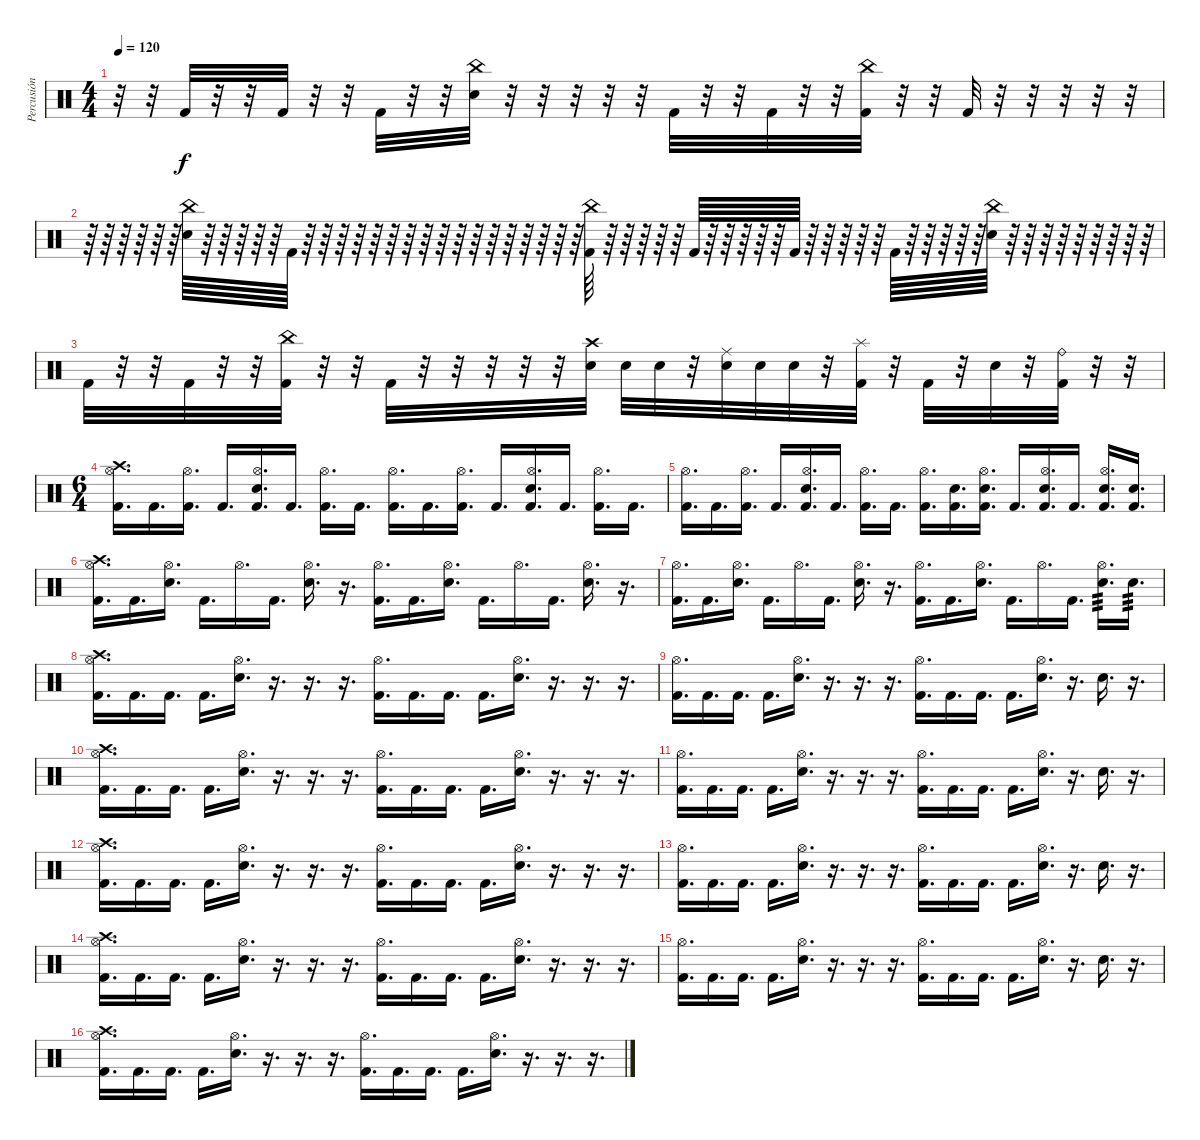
\track ("Percusión" "Percusión") {instrument percussion}
\staff {score}
\articulation defaults
\ts (4 4)
\tempo 120
\clef neutral
\ks c
r.32{dy f} r.32 "Kick (hit) 2".32 r.32 r.32 "Kick (hit) 2".32 r.32 r.32 "Kick (hit) 2".32 r.32 r.32 ("Electric Snare (hit)" "China (hit)").32 r.32 r.32 r.32 r.32 r.32 "Kick (hit) 2".32 r.32 r.32 "Kick (hit) 2".32 r.32 r.32 ("Kick (hit) 2" "China (hit)").32 r.32 r.32 "Kick (hit) 2".32 r.32 r.32 r.32 r.32 r.32 |
r.64 r.64 r.64 r.64 r.64 r.64 ("China (hit)" "Electric Snare (hit)").64 r.64 r.64 r.64 r.64 r.64 "Kick (hit) 2".64 r.64 r.64 r.64 r.64 r.64 r.64 r.64 r.64 r.64 r.64 r.64 r.64 r.64 r.64 r.64 r.64 r.64 ("China (hit)" "Kick (hit) 2").64 r.64 r.64 r.64 r.64 r.64 "Kick (hit) 2".64 r.64 r.64 r.64 r.64 r.64 "Kick (hit) 2".64 r.64 r.64 r.64 r.64 r.64 "Kick (hit) 2".64 r.64 r.64 r.64 r.64 r.64 ("China (hit)" "Electric Snare (hit)").64 r.64 r.64 r.64 r.64 r.64 r.64 r.64 r.64 r.64 |
"Kick (hit) 2".32 r.32 r.32 "Kick (hit) 2".32 r.32 r.32 ("China (hit)" "Kick (hit) 2").32 r.32 r.32 "Kick (hit) 2".32 r.32 r.32 r.32 r.32 r.32 ("Crash high (hit)" "Electric Snare (hit)").32 "Electric Snare (hit)".32 "Electric Snare (hit)".32 r.32 ("Ride (middle)" "Electric Snare (hit)").32 "Electric Snare (hit)".32 "Electric Snare (hit)".32 r.32 ("Splash (hit)" "Kick (hit) 2").32 r.32 "Kick (hit) 2".32 r.32 "Electric Snare (hit)".32 r.32 ("Ride (bell)" "Kick (hit) 2").32 r.32 r.32 |
\ts (6 4)
("Hi-Hat (open)" "Crash high (hit)" "Kick (hit) 2").16{d} "Kick (hit) 2".16{d} ("Hi-Hat (open)" "Kick (hit) 2").16{d} "Kick (hit) 2".16{d} ("Hi-Hat (open)" "Snare (hit) 2" "Kick (hit) 2").16{d} "Kick (hit) 2".16{d} ("Hi-Hat (open)" "Kick (hit) 2").16{d} "Kick (hit) 2".16{d} ("Hi-Hat (open)" "Kick (hit) 2").16{d} "Kick (hit) 2".16{d} ("Hi-Hat (open)" "Kick (hit) 2").16{d} "Kick (hit) 2".16{d} ("Hi-Hat (open)" "Snare (hit) 2" "Kick (hit) 2").16{d} "Kick (hit) 2".16{d} ("Hi-Hat (open)" "Kick (hit) 2").16{d} "Kick (hit) 2".16{d} |
("Hi-Hat (open)" "Kick (hit) 2").16{d} "Kick (hit) 2".16{d} ("Hi-Hat (open)" "Kick (hit) 2").16{d} "Kick (hit) 2".16{d} ("Hi-Hat (open)" "Snare (hit) 2" "Kick (hit) 2").16{d} "Kick (hit) 2".16{d} ("Hi-Hat (open)" "Kick (hit) 2").16{d} "Kick (hit) 2".16{d} ("Hi-Hat (open)" "Kick (hit) 2").16{d} ("Snare (hit) 2" "Kick (hit) 2").16{d} ("Hi-Hat (open)" "Snare (hit) 2" "Kick (hit) 2").16{d} "Kick (hit) 2".16{d} ("Hi-Hat (open)" "Snare (hit) 2" "Kick (hit) 2").16{d} "Kick (hit) 2".16{d} ("Hi-Hat (open)" "Snare (hit) 2" "Kick (hit) 2").16{d} ("Snare (hit) 2" "Kick (hit) 2").16{d} |
("Hi-Hat (open)" "Kick (hit) 2" "Crash high (hit)").16{d} "Kick (hit) 2".16{d} ("Hi-Hat (open)" "Snare (hit) 2").16{d} "Kick (hit) 2".16{d} "Hi-Hat (open)".16{d} "Kick (hit) 2".16{d} ("Hi-Hat (open)" "Snare (hit) 2").16{d} r.16{d} ("Hi-Hat (open)" "Kick (hit) 2").16{d} "Kick (hit) 2".16{d} ("Hi-Hat (open)" "Snare (hit) 2").16{d} "Kick (hit) 2".16{d} "Hi-Hat (open)".16{d} "Kick (hit) 2".16{d} ("Hi-Hat (open)" "Snare (hit) 2").16{d} r.16{d} |
("Hi-Hat (open)" "Kick (hit) 2").16{d} "Kick (hit) 2".16{d} ("Hi-Hat (open)" "Snare (hit) 2").16{d} "Kick (hit) 2".16{d} "Hi-Hat (open)".16{d} "Kick (hit) 2".16{d} ("Hi-Hat (open)" "Snare (hit) 2").16{d} r.16{d} ("Hi-Hat (open)" "Kick (hit) 2").16{d} "Kick (hit) 2".16{d} ("Hi-Hat (open)" "Snare (hit) 2").16{d} "Kick (hit) 2".16{d} "Hi-Hat (open)".16{d} "Kick (hit) 2".16{d} ("Hi-Hat (open)" "Snare (hit) 2").16{d tp 3} "Snare (hit) 2".16{d tp 3} |
("Hi-Hat (open)" "Kick (hit) 2" "Crash high (hit)").16{d} "Kick (hit) 2".16{d} "Kick (hit) 2".16{d} "Kick (hit) 2".16{d} ("Hi-Hat (open)" "Snare (hit) 2").16{d} r.16{d} r.16{d} r.16{d} ("Hi-Hat (open)" "Kick (hit) 2").16{d} "Kick (hit) 2".16{d} "Kick (hit) 2".16{d} "Kick (hit) 2".16{d} ("Hi-Hat (open)" "Snare (hit) 2").16{d} r.16{d} r.16{d} r.16{d} |
("Hi-Hat (open)" "Kick (hit) 2").16{d} "Kick (hit) 2".16{d} "Kick (hit) 2".16{d} "Kick (hit) 2".16{d} ("Hi-Hat (open)" "Snare (hit) 2").16{d} r.16{d} r.16{d} r.16{d} ("Hi-Hat (open)" "Kick (hit) 2").16{d} "Kick (hit) 2".16{d} "Kick (hit) 2".16{d} "Kick (hit) 2".16{d} ("Hi-Hat (open)" "Snare (hit) 2").16{d} r.16{d} "Snare (hit) 2".16{d} r.16{d} |
("Hi-Hat (open)" "Kick (hit) 2" "Crash high (hit)").16{d} "Kick (hit) 2".16{d} "Kick (hit) 2".16{d} "Kick (hit) 2".16{d} ("Hi-Hat (open)" "Snare (hit) 2").16{d} r.16{d} r.16{d} r.16{d} ("Hi-Hat (open)" "Kick (hit) 2").16{d} "Kick (hit) 2".16{d} "Kick (hit) 2".16{d} "Kick (hit) 2".16{d} ("Hi-Hat (open)" "Snare (hit) 2").16{d} r.16{d} r.16{d} r.16{d} |
("Hi-Hat (open)" "Kick (hit) 2").16{d} "Kick (hit) 2".16{d} "Kick (hit) 2".16{d} "Kick (hit) 2".16{d} ("Hi-Hat (open)" "Snare (hit) 2").16{d} r.16{d} r.16{d} r.16{d} ("Hi-Hat (open)" "Kick (hit) 2").16{d} "Kick (hit) 2".16{d} "Kick (hit) 2".16{d} "Kick (hit) 2".16{d} ("Hi-Hat (open)" "Snare (hit) 2").16{d} r.16{d} "Snare (hit) 2".16{d} r.16{d} |
("Hi-Hat (open)" "Kick (hit) 2" "Crash high (hit)").16{d} "Kick (hit) 2".16{d} "Kick (hit) 2".16{d} "Kick (hit) 2".16{d} ("Hi-Hat (open)" "Snare (hit) 2").16{d} r.16{d} r.16{d} r.16{d} ("Hi-Hat (open)" "Kick (hit) 2").16{d} "Kick (hit) 2".16{d} "Kick (hit) 2".16{d} "Kick (hit) 2".16{d} ("Hi-Hat (open)" "Snare (hit) 2").16{d} r.16{d} r.16{d} r.16{d} |
("Hi-Hat (open)" "Kick (hit) 2").16{d} "Kick (hit) 2".16{d} "Kick (hit) 2".16{d} "Kick (hit) 2".16{d} ("Hi-Hat (open)" "Snare (hit) 2").16{d} r.16{d} r.16{d} r.16{d} ("Hi-Hat (open)" "Kick (hit) 2").16{d} "Kick (hit) 2".16{d} "Kick (hit) 2".16{d} "Kick (hit) 2".16{d} ("Hi-Hat (open)" "Snare (hit) 2").16{d} r.16{d} "Snare (hit) 2".16{d} r.16{d} |
("Hi-Hat (open)" "Kick (hit) 2" "Crash high (hit)").16{d} "Kick (hit) 2".16{d} "Kick (hit) 2".16{d} "Kick (hit) 2".16{d} ("Hi-Hat (open)" "Snare (hit) 2").16{d} r.16{d} r.16{d} r.16{d} ("Hi-Hat (open)" "Kick (hit) 2").16{d} "Kick (hit) 2".16{d} "Kick (hit) 2".16{d} "Kick (hit) 2".16{d} ("Hi-Hat (open)" "Snare (hit) 2").16{d} r.16{d} r.16{d} r.16{d} |
("Hi-Hat (open)" "Kick (hit) 2").16{d} "Kick (hit) 2".16{d} "Kick (hit) 2".16{d} "Kick (hit) 2".16{d} ("Hi-Hat (open)" "Snare (hit) 2").16{d} r.16{d} r.16{d} r.16{d} ("Hi-Hat (open)" "Kick (hit) 2").16{d} "Kick (hit) 2".16{d} "Kick (hit) 2".16{d} "Kick (hit) 2".16{d} ("Hi-Hat (open)" "Snare (hit) 2").16{d} r.16{d} "Snare (hit) 2".16{d} r.16{d} |
("Hi-Hat (open)" "Kick (hit) 2" "Crash high (hit)").16{d} "Kick (hit) 2".16{d} "Kick (hit) 2".16{d} "Kick (hit) 2".16{d} ("Hi-Hat (open)" "Snare (hit) 2").16{d} r.16{d} r.16{d} r.16{d} ("Hi-Hat (open)" "Kick (hit) 2").16{d} "Kick (hit) 2".16{d} "Kick (hit) 2".16{d} "Kick (hit) 2".16{d} ("Hi-Hat (open)" "Snare (hit) 2").16{d} r.16{d} r.16{d} r.16{d}
